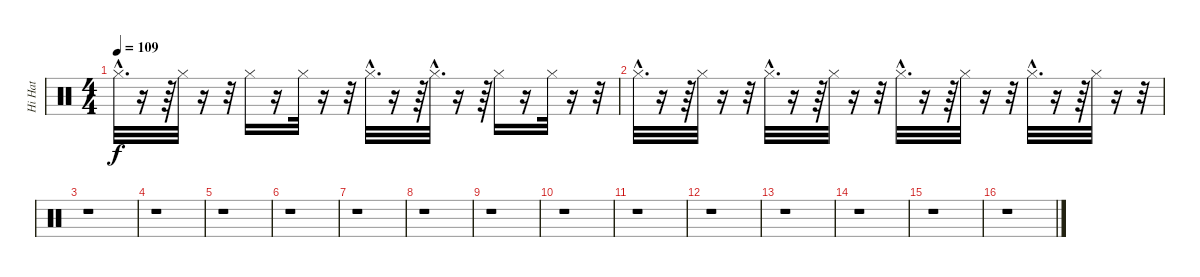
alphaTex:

\track ("Hi Hat" "Hi Hat") {instrument percussion}
\staff {score}
\articulation defaults
\ts (4 4)
\tempo 109
\clef neutral
\ks c "Hi-Hat (closed)"{hac}.32{d dy f}
r.16 r.64 "Hi-Hat (closed)".32 r.16 r.32 "Hi-Hat (closed)".16 r.16 "Hi-Hat (closed)".32 r.16 r.32 "Hi-Hat (closed)"{hac}.32{d} r.16 r.64 "Hi-Hat (closed)"{hac}.32{d} r.16 r.64 "Hi-Hat (closed)".16 r.16 "Hi-Hat (closed)".32 r.16 r.32 |
"Hi-Hat (closed)"{hac}.32{d} r.16 r.64 "Hi-Hat (closed)".32 r.16 r.32 "Hi-Hat (closed)"{hac}.32{d} r.16 r.64 "Hi-Hat (closed)".32 r.16 r.32 "Hi-Hat (closed)"{hac}.32{d} r.16 r.64 "Hi-Hat (closed)".32 r.16 r.32 "Hi-Hat (closed)"{hac}.32{d} r.16 r.64 "Hi-Hat (closed)".32 r.16 r.32 |
r.1 |
r.1 |
r.1 |
r.1 |
r.1 |
r.1 |
r.1 |
r.1 |
r.1 |
r.1 |
r.1 |
r.1 |
r.1 |
r.1
